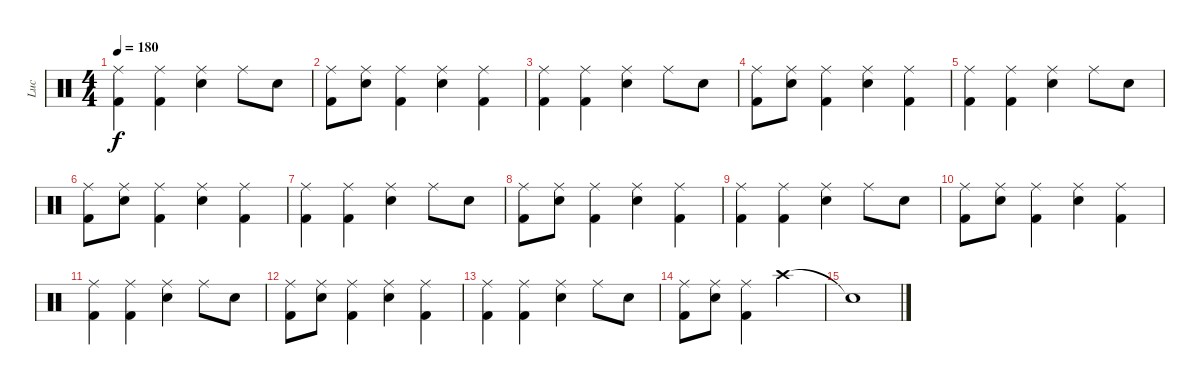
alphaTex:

\track ("Luc" "Luc") {instrument percussion}
\staff {score}
\articulation defaults
\ts (4 4)
\tempo 180
\clef neutral
\ks c
("Ride (middle)" "Kick (hit) 2").4{dy f} ("Ride (middle)" "Kick (hit) 2").4 ("Ride (middle)" "Snare (hit) 2").4 "Ride (middle)".8 "Snare (hit) 2".8 |
("Ride (middle)" "Kick (hit) 2").8 ("Ride (middle)" "Snare (hit) 2").8 ("Ride (middle)" "Kick (hit) 2").4 ("Ride (middle)" "Snare (hit) 2").4 ("Ride (middle)" "Kick (hit) 2").4 |
("Ride (middle)" "Kick (hit) 2").4 ("Ride (middle)" "Kick (hit) 2").4 ("Ride (middle)" "Snare (hit) 2").4 "Ride (middle)".8 "Snare (hit) 2".8 |
("Ride (middle)" "Kick (hit) 2").8 ("Ride (middle)" "Snare (hit) 2").8 ("Ride (middle)" "Kick (hit) 2").4 ("Ride (middle)" "Snare (hit) 2").4 ("Ride (middle)" "Kick (hit) 2").4 |
("Ride (middle)" "Kick (hit) 2").4 ("Ride (middle)" "Kick (hit) 2").4 ("Ride (middle)" "Snare (hit) 2").4 "Ride (middle)".8 "Snare (hit) 2".8 |
("Ride (middle)" "Kick (hit) 2").8 ("Ride (middle)" "Snare (hit) 2").8 ("Ride (middle)" "Kick (hit) 2").4 ("Ride (middle)" "Snare (hit) 2").4 ("Ride (middle)" "Kick (hit) 2").4 |
("Ride (middle)" "Kick (hit) 2").4 ("Ride (middle)" "Kick (hit) 2").4 ("Ride (middle)" "Snare (hit) 2").4 "Ride (middle)".8 "Snare (hit) 2".8 |
("Ride (middle)" "Kick (hit) 2").8 ("Ride (middle)" "Snare (hit) 2").8 ("Ride (middle)" "Kick (hit) 2").4 ("Ride (middle)" "Snare (hit) 2").4 ("Ride (middle)" "Kick (hit) 2").4 |
("Ride (middle)" "Kick (hit) 2").4 ("Ride (middle)" "Kick (hit) 2").4 ("Ride (middle)" "Snare (hit) 2").4 "Ride (middle)".8 "Snare (hit) 2".8 |
("Ride (middle)" "Kick (hit) 2").8 ("Ride (middle)" "Snare (hit) 2").8 ("Ride (middle)" "Kick (hit) 2").4 ("Ride (middle)" "Snare (hit) 2").4 ("Ride (middle)" "Kick (hit) 2").4 |
("Ride (middle)" "Kick (hit) 2").4 ("Ride (middle)" "Kick (hit) 2").4 ("Ride (middle)" "Snare (hit) 2").4 "Ride (middle)".8 "Snare (hit) 2".8 |
("Ride (middle)" "Kick (hit) 2").8 ("Ride (middle)" "Snare (hit) 2").8 ("Ride (middle)" "Kick (hit) 2").4 ("Ride (middle)" "Snare (hit) 2").4 ("Ride (middle)" "Kick (hit) 2").4 |
("Ride (middle)" "Kick (hit) 2").4 ("Ride (middle)" "Kick (hit) 2").4 ("Ride (middle)" "Snare (hit) 2").4 "Ride (middle)".8 "Snare (hit) 2".8 |
("Ride (middle)" "Kick (hit) 2").8 ("Ride (middle)" "Snare (hit) 2").8 ("Ride (middle)" "Kick (hit) 2").4 "Crash high (hit)".2 |
"Snare (hit)"{t}.1
